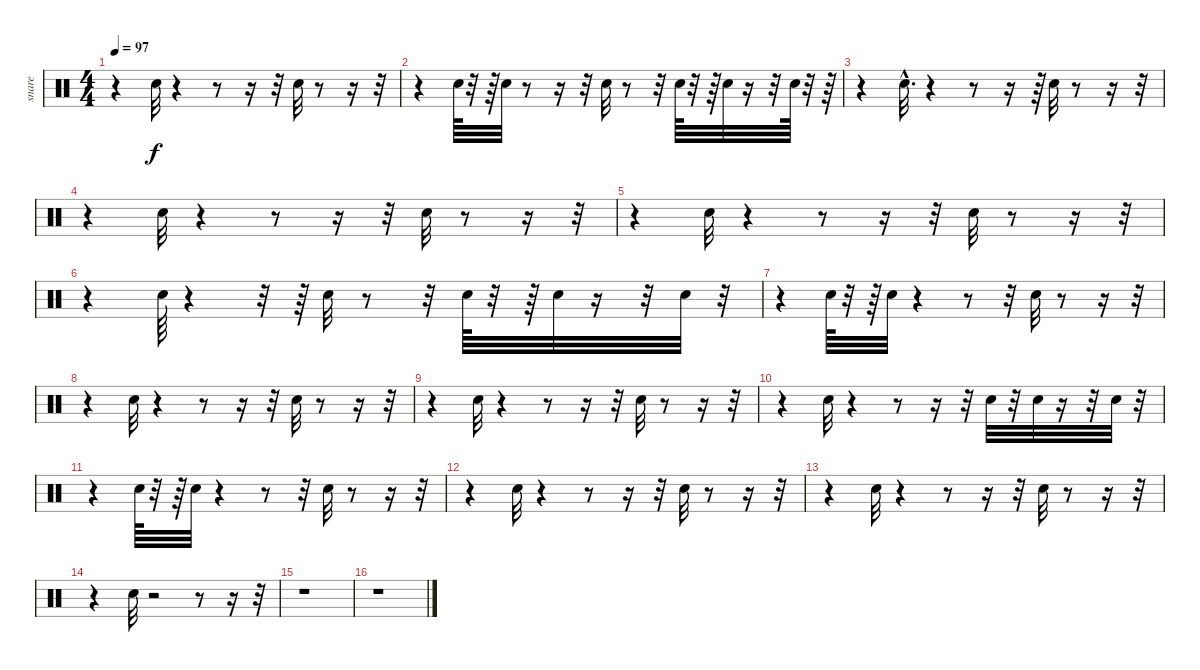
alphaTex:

\track ("snare" "snare") {instrument percussion}
\staff {score}
\articulation defaults
\ts (4 4)
\tempo 97
\clef neutral
\ks c
r.4{dy f} "Electric Snare (hit)".32 r.4 r.8 r.16 r.32 "Electric Snare (hit)".32 r.8 r.16 r.32 |
r.4 "Electric Snare (hit)".64 r.32 r.64 "Electric Snare (hit)".32 r.8 r.16 r.32 "Electric Snare (hit)".32 r.8 r.32 "Electric Snare (hit)".64 r.32 r.64 "Electric Snare (hit)".32 r.16 r.32 "Electric Snare (hit)".64 r.32 r.64 |
r.4 "Electric Snare (hit)"{hac}.32{d} r.4 r.8 r.16 r.64 "Electric Snare (hit)".32 r.8 r.16 r.32 |
r.4 "Electric Snare (hit)".32 r.4 r.8 r.16 r.32 "Electric Snare (hit)".32 r.8 r.16 r.32 |
r.4 "Electric Snare (hit)".32 r.4 r.8 r.16 r.32 "Electric Snare (hit)".32 r.8 r.16 r.32 |
r.4 "Electric Snare (hit)".64 r.4 r.32 r.64 "Electric Snare (hit)".32 r.8 r.32 "Electric Snare (hit)".64 r.32 r.64 "Electric Snare (hit)".32 r.16 r.32 "Electric Snare (hit)".32 r.32 |
r.4 "Electric Snare (hit)".64 r.32 r.64 "Electric Snare (hit)".32 r.4 r.8 r.32 "Electric Snare (hit)".32 r.8 r.16 r.32 |
r.4 "Electric Snare (hit)".32 r.4 r.8 r.16 r.32 "Electric Snare (hit)".32 r.8 r.16 r.32 |
r.4 "Electric Snare (hit)".32 r.4 r.8 r.16 r.32 "Electric Snare (hit)".32 r.8 r.16 r.32 |
r.4 "Electric Snare (hit)".32 r.4 r.8 r.16 r.32 "Electric Snare (hit)".32 r.32 "Electric Snare (hit)".32 r.16 r.32 "Electric Snare (hit)".32 r.32 |
r.4 "Electric Snare (hit)".64 r.32 r.64 "Electric Snare (hit)".32 r.4 r.8 r.32 "Electric Snare (hit)".32 r.8 r.16 r.32 |
r.4 "Electric Snare (hit)".32 r.4 r.8 r.16 r.32 "Electric Snare (hit)".32 r.8 r.16 r.32 |
r.4 "Electric Snare (hit)".32 r.4 r.8 r.16 r.32 "Electric Snare (hit)".32 r.8 r.16 r.32 |
r.4 "Electric Snare (hit)".32 r.2 r.8 r.16 r.32 |
r.1 |
r.1
